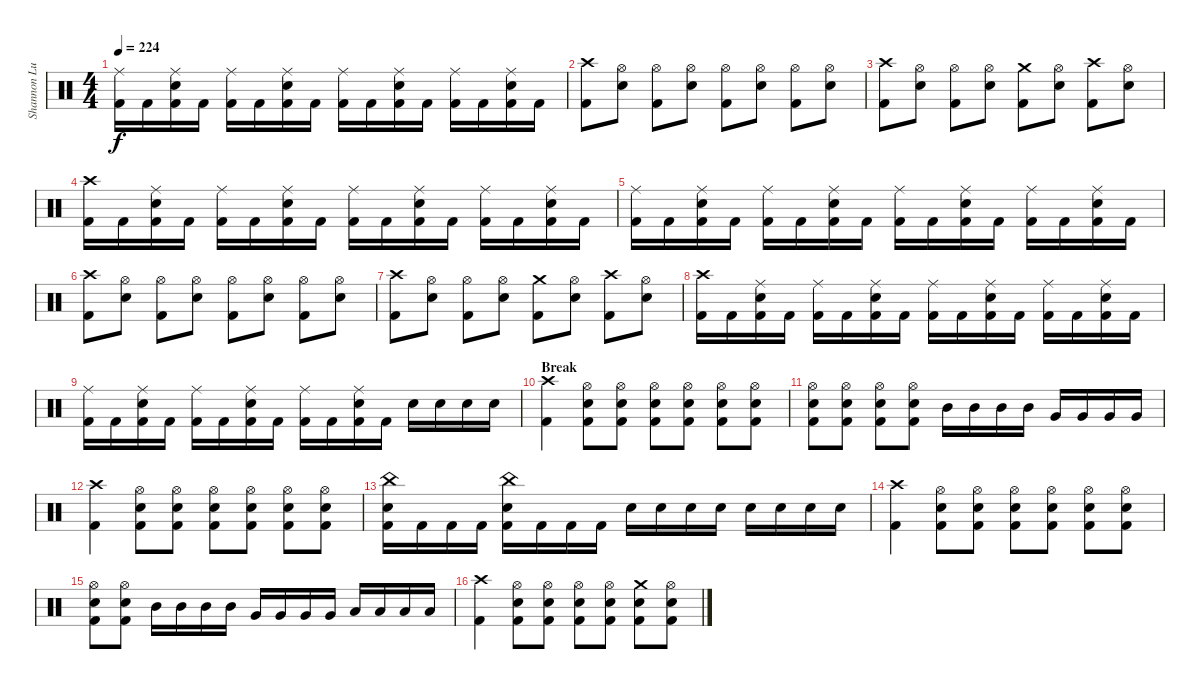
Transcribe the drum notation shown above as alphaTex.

\track ("Shannon Lucas (Drums)" "Shannon Lu") {instrument percussion}
\staff {score}
\articulation defaults
\ts (4 4)
\tempo 224
\clef neutral
\ks c
("Ride (middle)" "Kick (hit) 2").16{dy f} "Kick (hit) 2".16 ("Ride (middle)" "Snare (hit) 2" "Kick (hit) 2").16 "Kick (hit) 2".16 ("Ride (middle)" "Kick (hit) 2").16 "Kick (hit) 2".16 ("Snare (hit) 2" "Ride (middle)" "Kick (hit) 2").16 "Kick (hit) 2".16 ("Ride (middle)" "Kick (hit) 2").16 "Kick (hit) 2".16 ("Snare (hit) 2" "Ride (middle)" "Kick (hit) 2").16 "Kick (hit) 2".16 ("Ride (middle)" "Kick (hit) 2").16 "Kick (hit) 2".16 ("Snare (hit) 2" "Ride (middle)" "Kick (hit) 2").16 "Kick (hit) 2".16 |
("Crash high (hit)" "Kick (hit) 2").8{balance 8} ("Hi-Hat (open)" "Snare (hit) 2").8 ("Hi-Hat (open)" "Kick (hit) 2").8 ("Hi-Hat (open)" "Snare (hit) 2").8 ("Hi-Hat (open)" "Kick (hit) 2").8 ("Hi-Hat (open)" "Snare (hit) 2").8 ("Hi-Hat (open)" "Kick (hit) 2").8 ("Hi-Hat (open)" "Snare (hit) 2").8 |
("Crash high (hit)" "Kick (hit) 2").8 ("Hi-Hat (open)" "Snare (hit) 2").8 ("Hi-Hat (open)" "Kick (hit) 2").8 ("Hi-Hat (open)" "Snare (hit) 2").8 ("Crash medium (hit)" "Kick (hit) 2").8 ("Hi-Hat (open)" "Snare (hit) 2").8 ("Crash high (hit)" "Kick (hit) 2").8 ("Hi-Hat (open)" "Snare (hit) 2").8 |
("Crash high (hit)" "Kick (hit) 2").16 "Kick (hit) 2".16 ("Ride (middle)" "Snare (hit) 2" "Kick (hit) 2").16 "Kick (hit) 2".16 ("Ride (middle)" "Kick (hit) 2").16 "Kick (hit) 2".16 ("Snare (hit) 2" "Ride (middle)" "Kick (hit) 2").16 "Kick (hit) 2".16 ("Ride (middle)" "Kick (hit) 2").16 "Kick (hit) 2".16 ("Snare (hit) 2" "Ride (middle)" "Kick (hit) 2").16 "Kick (hit) 2".16 ("Ride (middle)" "Kick (hit) 2").16 "Kick (hit) 2".16 ("Snare (hit) 2" "Ride (middle)" "Kick (hit) 2").16 "Kick (hit) 2".16 |
("Ride (middle)" "Kick (hit) 2").16 "Kick (hit) 2".16 ("Ride (middle)" "Snare (hit) 2" "Kick (hit) 2").16 "Kick (hit) 2".16 ("Ride (middle)" "Kick (hit) 2").16 "Kick (hit) 2".16 ("Snare (hit) 2" "Ride (middle)" "Kick (hit) 2").16 "Kick (hit) 2".16 ("Ride (middle)" "Kick (hit) 2").16 "Kick (hit) 2".16 ("Snare (hit) 2" "Ride (middle)" "Kick (hit) 2").16 "Kick (hit) 2".16 ("Ride (middle)" "Kick (hit) 2").16 "Kick (hit) 2".16 ("Snare (hit) 2" "Ride (middle)" "Kick (hit) 2").16 "Kick (hit) 2".16 |
("Crash high (hit)" "Kick (hit) 2").8{balance 8} ("Hi-Hat (open)" "Snare (hit) 2").8 ("Hi-Hat (open)" "Kick (hit) 2").8 ("Hi-Hat (open)" "Snare (hit) 2").8 ("Hi-Hat (open)" "Kick (hit) 2").8 ("Hi-Hat (open)" "Snare (hit) 2").8 ("Hi-Hat (open)" "Kick (hit) 2").8 ("Hi-Hat (open)" "Snare (hit) 2").8 |
("Crash high (hit)" "Kick (hit) 2").8 ("Hi-Hat (open)" "Snare (hit) 2").8 ("Hi-Hat (open)" "Kick (hit) 2").8 ("Hi-Hat (open)" "Snare (hit) 2").8 ("Crash medium (hit)" "Kick (hit) 2").8 ("Hi-Hat (open)" "Snare (hit) 2").8 ("Crash high (hit)" "Kick (hit) 2").8 ("Hi-Hat (open)" "Snare (hit) 2").8 |
("Crash high (hit)" "Kick (hit) 2").16 "Kick (hit) 2".16 ("Ride (middle)" "Snare (hit) 2" "Kick (hit) 2").16 "Kick (hit) 2".16 ("Ride (middle)" "Kick (hit) 2").16 "Kick (hit) 2".16 ("Snare (hit) 2" "Ride (middle)" "Kick (hit) 2").16 "Kick (hit) 2".16 ("Ride (middle)" "Kick (hit) 2").16 "Kick (hit) 2".16 ("Snare (hit) 2" "Ride (middle)" "Kick (hit) 2").16 "Kick (hit) 2".16 ("Ride (middle)" "Kick (hit) 2").16 "Kick (hit) 2".16 ("Snare (hit) 2" "Ride (middle)" "Kick (hit) 2").16 "Kick (hit) 2".16 |
("Ride (middle)" "Kick (hit) 2").16 "Kick (hit) 2".16 ("Ride (middle)" "Snare (hit) 2" "Kick (hit) 2").16 "Kick (hit) 2".16 ("Ride (middle)" "Kick (hit) 2").16 "Kick (hit) 2".16 ("Snare (hit) 2" "Ride (middle)" "Kick (hit) 2").16 "Kick (hit) 2".16 ("Ride (middle)" "Kick (hit) 2").16 "Kick (hit) 2".16 ("Snare (hit) 2" "Ride (middle)" "Kick (hit) 2").16 "Kick (hit) 2".16 "Snare (hit) 2".16 "Snare (hit) 2".16 "Snare (hit) 2".16 "Snare (hit) 2".16 |
\section ("" "Break")
("Crash high (hit)" "Kick (hit) 2").4 ("Hi-Hat (open)" "Snare (hit) 2" "Kick (hit) 2").8 ("Hi-Hat (open)" "Snare (hit) 2" "Kick (hit) 2").8 ("Hi-Hat (open)" "Snare (hit) 2" "Kick (hit) 2").8 ("Hi-Hat (open)" "Snare (hit) 2" "Kick (hit) 2").8 ("Hi-Hat (open)" "Snare (hit) 2" "Kick (hit) 2").8 ("Hi-Hat (open)" "Snare (hit) 2" "Kick (hit) 2").8 |
("Hi-Hat (open)" "Snare (hit) 2" "Kick (hit) 2").8 ("Hi-Hat (open)" "Snare (hit) 2" "Kick (hit) 2").8 ("Hi-Hat (open)" "Snare (hit) 2" "Kick (hit) 2").8 ("Hi-Hat (open)" "Snare (hit) 2" "Kick (hit) 2").8 "Mid Tom (hit)".16 "Mid Tom (hit)".16 "Mid Tom (hit)".16 "Mid Tom (hit)".16 "Very Low Tom (hit)".16 "Very Low Tom (hit)".16 "Very Low Tom (hit)".16 "Very Low Tom (hit)".16 |
("Crash high (hit)" "Kick (hit) 2").4 ("Hi-Hat (open)" "Snare (hit) 2" "Kick (hit) 2").8 ("Hi-Hat (open)" "Snare (hit) 2" "Kick (hit) 2").8 ("Hi-Hat (open)" "Snare (hit) 2" "Kick (hit) 2").8 ("Hi-Hat (open)" "Snare (hit) 2" "Kick (hit) 2").8 ("Hi-Hat (open)" "Snare (hit) 2" "Kick (hit) 2").8 ("Hi-Hat (open)" "Snare (hit) 2" "Kick (hit) 2").8 |
("China (hit)" "Snare (hit) 2" "Kick (hit) 2").16 "Kick (hit) 2".16 "Kick (hit) 2".16 "Kick (hit) 2".16 ("China (hit)" "Snare (hit) 2" "Kick (hit) 2").16 "Kick (hit) 2".16 "Kick (hit) 2".16 "Kick (hit) 2".16 "Snare (hit) 2".16 "Snare (hit) 2".16 "Snare (hit) 2".16 "Snare (hit) 2".16 "Snare (hit) 2".16 "Snare (hit) 2".16 "Snare (hit) 2".16 "Snare (hit) 2".16 |
("Crash high (hit)" "Kick (hit) 2").4 ("Hi-Hat (open)" "Snare (hit) 2" "Kick (hit) 2").8 ("Hi-Hat (open)" "Snare (hit) 2" "Kick (hit) 2").8 ("Hi-Hat (open)" "Snare (hit) 2" "Kick (hit) 2").8 ("Hi-Hat (open)" "Snare (hit) 2" "Kick (hit) 2").8 ("Hi-Hat (open)" "Snare (hit) 2" "Kick (hit) 2").8 ("Hi-Hat (open)" "Snare (hit) 2" "Kick (hit) 2").8 |
("Hi-Hat (open)" "Snare (hit) 2" "Kick (hit) 2").8 ("Hi-Hat (open)" "Snare (hit) 2" "Kick (hit) 2").8 "Mid Tom (hit)".16 "Mid Tom (hit)".16 "Mid Tom (hit)".16 "Mid Tom (hit)".16 "Very Low Tom (hit)".16 "Very Low Tom (hit)".16 "Very Low Tom (hit)".16 "Very Low Tom (hit)".16 "Low Floor Tom (hit)".16 "Low Floor Tom (hit)".16 "Low Floor Tom (hit)".16 "Low Floor Tom (hit)".16 |
("Crash high (hit)" "Kick (hit) 2").4 ("Hi-Hat (open)" "Snare (hit) 2" "Kick (hit) 2").8 ("Hi-Hat (open)" "Snare (hit) 2" "Kick (hit) 2").8 ("Hi-Hat (open)" "Snare (hit) 2" "Kick (hit) 2").8 ("Hi-Hat (open)" "Snare (hit) 2" "Kick (hit) 2").8 ("Crash medium (hit)" "Snare (hit) 2" "Kick (hit) 2").8 ("Hi-Hat (open)" "Snare (hit) 2" "Kick (hit) 2").8
